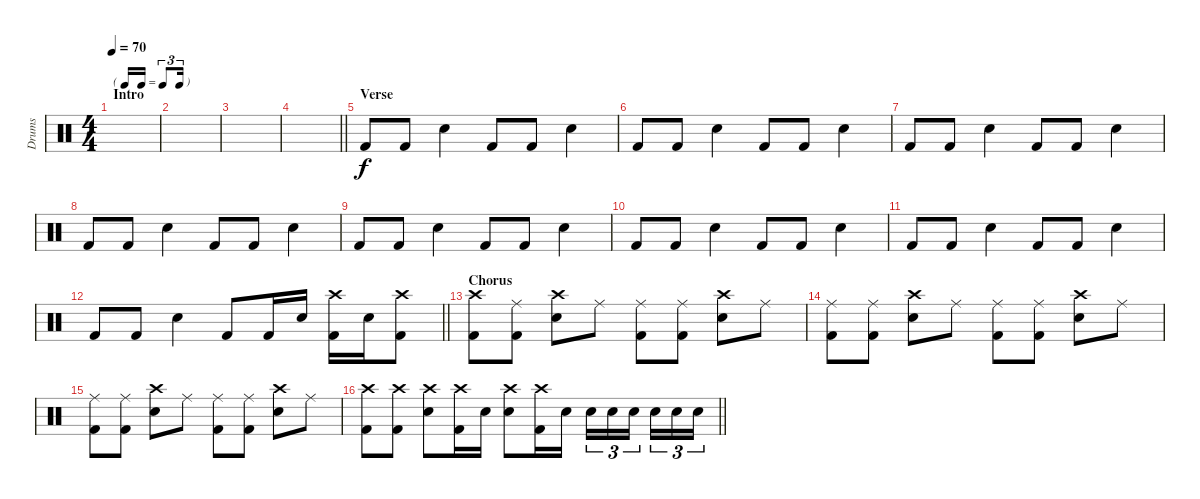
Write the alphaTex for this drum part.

\track ("Drums" "Drums") {instrument percussion}
\staff {score}
\articulation defaults
\ts (4 4)
\tf triplet16th
\section ("" "Intro")
\tempo 70
\clef neutral
\ks c
|
|
|
\barLineRight lightlight
|
\section ("" "Verse ")
"Kick (hit) 2".8 "Kick (hit) 2".8 "Snare (hit) 2".4 "Kick (hit) 2".8 "Kick (hit) 2".8 "Snare (hit) 2".4 |
"Kick (hit) 2".8 "Kick (hit) 2".8 "Snare (hit) 2".4 "Kick (hit) 2".8 "Kick (hit) 2".8 "Snare (hit) 2".4 |
"Kick (hit) 2".8 "Kick (hit) 2".8 "Snare (hit) 2".4 "Kick (hit) 2".8 "Kick (hit) 2".8 "Snare (hit) 2".4 |
"Kick (hit) 2".8 "Kick (hit) 2".8 "Snare (hit) 2".4 "Kick (hit) 2".8 "Kick (hit) 2".8 "Snare (hit) 2".4 |
"Kick (hit) 2".8 "Kick (hit) 2".8 "Snare (hit) 2".4 "Kick (hit) 2".8 "Kick (hit) 2".8 "Snare (hit) 2".4 |
"Kick (hit) 2".8 "Kick (hit) 2".8 "Snare (hit) 2".4 "Kick (hit) 2".8 "Kick (hit) 2".8 "Snare (hit) 2".4 |
"Kick (hit) 2".8 "Kick (hit) 2".8 "Snare (hit) 2".4 "Kick (hit) 2".8 "Kick (hit) 2".8 "Snare (hit) 2".4 |
\barLineRight lightlight "Kick (hit) 2".8 "Kick (hit) 2".8 "Snare (hit) 2".4 "Kick (hit) 2".8 "Kick (hit) 2".16 "Snare (hit) 2".16
("Crash high (hit)" "Kick (hit) 2").16 "Snare (hit) 2".16 ("Crash high (hit)" "Kick (hit) 2").8 |
\section ("" "Chorus")
("Crash high (hit)" "Kick (hit) 2").8 ("Ride (middle)" "Kick (hit) 2").8 ("Crash high (hit)" "Snare (hit) 2").8 "Ride (middle)".8 ("Ride (middle)" "Kick (hit) 2").8 ("Ride (middle)" "Kick (hit) 2").8 ("Crash high (hit)" "Snare (hit) 2").8 "Ride (middle)".8 |
("Ride (middle)" "Kick (hit) 2").8 ("Ride (middle)" "Kick (hit) 2").8 ("Crash high (hit)" "Snare (hit) 2").8 "Ride (middle)".8 ("Ride (middle)" "Kick (hit) 2").8 ("Ride (middle)" "Kick (hit) 2").8 ("Crash high (hit)" "Snare (hit) 2").8 "Ride (middle)".8 |
("Ride (middle)" "Kick (hit) 2").8 ("Ride (middle)" "Kick (hit) 2").8 ("Crash high (hit)" "Snare (hit) 2").8 "Ride (middle)".8 ("Ride (middle)" "Kick (hit) 2").8 ("Ride (middle)" "Kick (hit) 2").8 ("Crash high (hit)" "Snare (hit) 2").8 "Ride (middle)".8 |
\barLineRight lightlight
("Crash high (hit)" "Kick (hit) 2").8 ("Crash high (hit)" "Kick (hit) 2").8 ("Crash high (hit)" "Snare (hit) 2").8 ("Crash high (hit)" "Kick (hit) 2").16 "Snare (hit) 2".16 ("Crash high (hit)" "Snare (hit) 2").8 ("Crash high (hit)" "Kick (hit) 2").16 "Snare (hit) 2".16 "Snare (hit) 2".16{tu (3 2)} "Snare (hit) 2".16{tu (3 2)} "Snare (hit) 2".16{tu (3 2) beam splitsecondary} "Snare (hit) 2".16{tu (3 2)} "Snare (hit) 2".16{tu (3 2)} "Snare (hit) 2".16{tu (3 2)}
